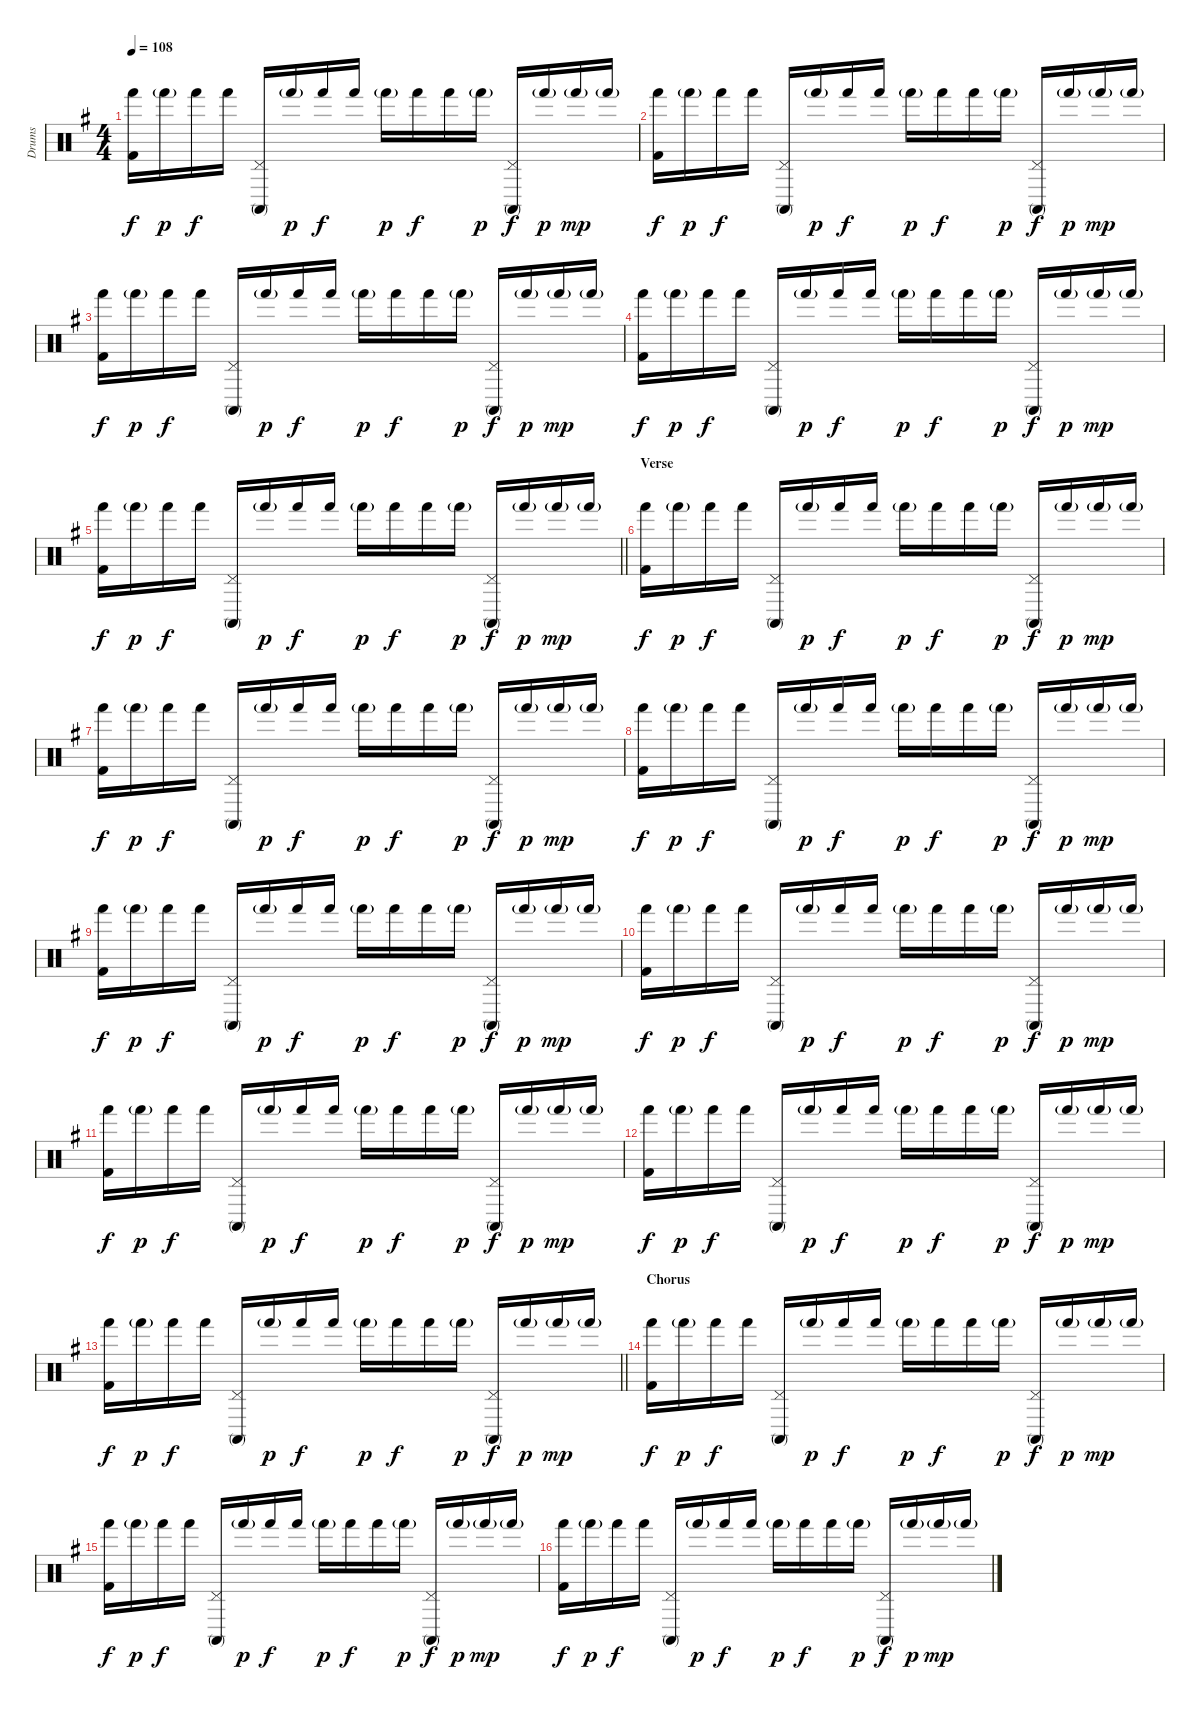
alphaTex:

\track ("Drums" "Drums") {instrument percussion}
\staff {score}
\articulation defaults
\ts (4 4)
\tempo 108
\clef neutral
\ks eminor
("Hand (hit)" "Kick (hit) 2").16{dy f} "Hand (hit)"{g}.16{dy p} "Hand (hit)".16{dy f} "Hand (hit)".16 ("Pedal Hi-Hat (hit)" "Conga high (mute)").16 "Hand (hit)"{g}.16{dy p} "Hand (hit)".16{dy f} "Hand (hit)".16 "Hand (hit)"{g}.16{dy p} "Hand (hit)".16{dy f} "Hand (hit)".16 "Hand (hit)"{g}.16{dy p} ("Pedal Hi-Hat (hit)" "Conga high (mute)").16{dy f} "Hand (hit)"{g}.16{dy p} "Hand (hit)"{g}.16{dy mp} "Hand (hit)"{g}.16 |
("Hand (hit)" "Kick (hit) 2").16{dy f} "Hand (hit)"{g}.16{dy p} "Hand (hit)".16{dy f} "Hand (hit)".16 ("Pedal Hi-Hat (hit)" "Conga high (mute)").16 "Hand (hit)"{g}.16{dy p} "Hand (hit)".16{dy f} "Hand (hit)".16 "Hand (hit)"{g}.16{dy p} "Hand (hit)".16{dy f} "Hand (hit)".16 "Hand (hit)"{g}.16{dy p} ("Pedal Hi-Hat (hit)" "Conga high (mute)").16{dy f} "Hand (hit)"{g}.16{dy p} "Hand (hit)"{g}.16{dy mp} "Hand (hit)"{g}.16 |
("Hand (hit)" "Kick (hit) 2").16{dy f} "Hand (hit)"{g}.16{dy p} "Hand (hit)".16{dy f} "Hand (hit)".16 ("Pedal Hi-Hat (hit)" "Conga high (mute)").16 "Hand (hit)"{g}.16{dy p} "Hand (hit)".16{dy f} "Hand (hit)".16 "Hand (hit)"{g}.16{dy p} "Hand (hit)".16{dy f} "Hand (hit)".16 "Hand (hit)"{g}.16{dy p} ("Pedal Hi-Hat (hit)" "Conga high (mute)").16{dy f} "Hand (hit)"{g}.16{dy p} "Hand (hit)"{g}.16{dy mp} "Hand (hit)"{g}.16 |
("Hand (hit)" "Kick (hit) 2").16{dy f} "Hand (hit)"{g}.16{dy p} "Hand (hit)".16{dy f} "Hand (hit)".16 ("Pedal Hi-Hat (hit)" "Conga high (mute)").16 "Hand (hit)"{g}.16{dy p} "Hand (hit)".16{dy f} "Hand (hit)".16 "Hand (hit)"{g}.16{dy p} "Hand (hit)".16{dy f} "Hand (hit)".16 "Hand (hit)"{g}.16{dy p} ("Pedal Hi-Hat (hit)" "Conga high (mute)").16{dy f} "Hand (hit)"{g}.16{dy p} "Hand (hit)"{g}.16{dy mp} "Hand (hit)"{g}.16 |
\barLineRight lightlight
("Hand (hit)" "Kick (hit) 2").16{dy f} "Hand (hit)"{g}.16{dy p} "Hand (hit)".16{dy f} "Hand (hit)".16 ("Pedal Hi-Hat (hit)" "Conga high (mute)").16 "Hand (hit)"{g}.16{dy p} "Hand (hit)".16{dy f} "Hand (hit)".16 "Hand (hit)"{g}.16{dy p} "Hand (hit)".16{dy f} "Hand (hit)".16 "Hand (hit)"{g}.16{dy p} ("Pedal Hi-Hat (hit)" "Conga high (mute)").16{dy f} "Hand (hit)"{g}.16{dy p} "Hand (hit)"{g}.16{dy mp} "Hand (hit)"{g}.16 |
\section ("" "Verse")
("Hand (hit)" "Kick (hit) 2").16{dy f} "Hand (hit)"{g}.16{dy p} "Hand (hit)".16{dy f} "Hand (hit)".16 ("Pedal Hi-Hat (hit)" "Conga high (mute)").16 "Hand (hit)"{g}.16{dy p} "Hand (hit)".16{dy f} "Hand (hit)".16 "Hand (hit)"{g}.16{dy p} "Hand (hit)".16{dy f} "Hand (hit)".16 "Hand (hit)"{g}.16{dy p} ("Pedal Hi-Hat (hit)" "Conga high (mute)").16{dy f} "Hand (hit)"{g}.16{dy p} "Hand (hit)"{g}.16{dy mp} "Hand (hit)"{g}.16 |
("Hand (hit)" "Kick (hit) 2").16{dy f} "Hand (hit)"{g}.16{dy p} "Hand (hit)".16{dy f} "Hand (hit)".16 ("Pedal Hi-Hat (hit)" "Conga high (mute)").16 "Hand (hit)"{g}.16{dy p} "Hand (hit)".16{dy f} "Hand (hit)".16 "Hand (hit)"{g}.16{dy p} "Hand (hit)".16{dy f} "Hand (hit)".16 "Hand (hit)"{g}.16{dy p} ("Pedal Hi-Hat (hit)" "Conga high (mute)").16{dy f} "Hand (hit)"{g}.16{dy p} "Hand (hit)"{g}.16{dy mp} "Hand (hit)"{g}.16 |
("Hand (hit)" "Kick (hit) 2").16{dy f} "Hand (hit)"{g}.16{dy p} "Hand (hit)".16{dy f} "Hand (hit)".16 ("Pedal Hi-Hat (hit)" "Conga high (mute)").16 "Hand (hit)"{g}.16{dy p} "Hand (hit)".16{dy f} "Hand (hit)".16 "Hand (hit)"{g}.16{dy p} "Hand (hit)".16{dy f} "Hand (hit)".16 "Hand (hit)"{g}.16{dy p} ("Pedal Hi-Hat (hit)" "Conga high (mute)").16{dy f} "Hand (hit)"{g}.16{dy p} "Hand (hit)"{g}.16{dy mp} "Hand (hit)"{g}.16 |
("Hand (hit)" "Kick (hit) 2").16{dy f} "Hand (hit)"{g}.16{dy p} "Hand (hit)".16{dy f} "Hand (hit)".16 ("Pedal Hi-Hat (hit)" "Conga high (mute)").16 "Hand (hit)"{g}.16{dy p} "Hand (hit)".16{dy f} "Hand (hit)".16 "Hand (hit)"{g}.16{dy p} "Hand (hit)".16{dy f} "Hand (hit)".16 "Hand (hit)"{g}.16{dy p} ("Pedal Hi-Hat (hit)" "Conga high (mute)").16{dy f} "Hand (hit)"{g}.16{dy p} "Hand (hit)"{g}.16{dy mp} "Hand (hit)"{g}.16 |
("Hand (hit)" "Kick (hit) 2").16{dy f} "Hand (hit)"{g}.16{dy p} "Hand (hit)".16{dy f} "Hand (hit)".16 ("Pedal Hi-Hat (hit)" "Conga high (mute)").16 "Hand (hit)"{g}.16{dy p} "Hand (hit)".16{dy f} "Hand (hit)".16 "Hand (hit)"{g}.16{dy p} "Hand (hit)".16{dy f} "Hand (hit)".16 "Hand (hit)"{g}.16{dy p} ("Pedal Hi-Hat (hit)" "Conga high (mute)").16{dy f} "Hand (hit)"{g}.16{dy p} "Hand (hit)"{g}.16{dy mp} "Hand (hit)"{g}.16 |
("Hand (hit)" "Kick (hit) 2").16{dy f} "Hand (hit)"{g}.16{dy p} "Hand (hit)".16{dy f} "Hand (hit)".16 ("Pedal Hi-Hat (hit)" "Conga high (mute)").16 "Hand (hit)"{g}.16{dy p} "Hand (hit)".16{dy f} "Hand (hit)".16 "Hand (hit)"{g}.16{dy p} "Hand (hit)".16{dy f} "Hand (hit)".16 "Hand (hit)"{g}.16{dy p} ("Pedal Hi-Hat (hit)" "Conga high (mute)").16{dy f} "Hand (hit)"{g}.16{dy p} "Hand (hit)"{g}.16{dy mp} "Hand (hit)"{g}.16 |
("Hand (hit)" "Kick (hit) 2").16{dy f} "Hand (hit)"{g}.16{dy p} "Hand (hit)".16{dy f} "Hand (hit)".16 ("Pedal Hi-Hat (hit)" "Conga high (mute)").16 "Hand (hit)"{g}.16{dy p} "Hand (hit)".16{dy f} "Hand (hit)".16 "Hand (hit)"{g}.16{dy p} "Hand (hit)".16{dy f} "Hand (hit)".16 "Hand (hit)"{g}.16{dy p} ("Pedal Hi-Hat (hit)" "Conga high (mute)").16{dy f} "Hand (hit)"{g}.16{dy p} "Hand (hit)"{g}.16{dy mp} "Hand (hit)"{g}.16 |
\barLineRight lightlight
("Hand (hit)" "Kick (hit) 2").16{dy f} "Hand (hit)"{g}.16{dy p} "Hand (hit)".16{dy f} "Hand (hit)".16 ("Pedal Hi-Hat (hit)" "Conga high (mute)").16 "Hand (hit)"{g}.16{dy p} "Hand (hit)".16{dy f} "Hand (hit)".16 "Hand (hit)"{g}.16{dy p} "Hand (hit)".16{dy f} "Hand (hit)".16 "Hand (hit)"{g}.16{dy p} ("Pedal Hi-Hat (hit)" "Conga high (mute)").16{dy f} "Hand (hit)"{g}.16{dy p} "Hand (hit)"{g}.16{dy mp} "Hand (hit)"{g}.16 |
\section ("" "Chorus")
("Hand (hit)" "Kick (hit) 2").16{dy f} "Hand (hit)"{g}.16{dy p} "Hand (hit)".16{dy f} "Hand (hit)".16 ("Pedal Hi-Hat (hit)" "Conga high (mute)").16 "Hand (hit)"{g}.16{dy p} "Hand (hit)".16{dy f} "Hand (hit)".16 "Hand (hit)"{g}.16{dy p} "Hand (hit)".16{dy f} "Hand (hit)".16 "Hand (hit)"{g}.16{dy p} ("Pedal Hi-Hat (hit)" "Conga high (mute)").16{dy f} "Hand (hit)"{g}.16{dy p} "Hand (hit)"{g}.16{dy mp} "Hand (hit)"{g}.16 |
("Hand (hit)" "Kick (hit) 2").16{dy f} "Hand (hit)"{g}.16{dy p} "Hand (hit)".16{dy f} "Hand (hit)".16 ("Pedal Hi-Hat (hit)" "Conga high (mute)").16 "Hand (hit)"{g}.16{dy p} "Hand (hit)".16{dy f} "Hand (hit)".16 "Hand (hit)"{g}.16{dy p} "Hand (hit)".16{dy f} "Hand (hit)".16 "Hand (hit)"{g}.16{dy p} ("Pedal Hi-Hat (hit)" "Conga high (mute)").16{dy f} "Hand (hit)"{g}.16{dy p} "Hand (hit)"{g}.16{dy mp} "Hand (hit)"{g}.16 |
("Hand (hit)" "Kick (hit) 2").16{dy f} "Hand (hit)"{g}.16{dy p} "Hand (hit)".16{dy f} "Hand (hit)".16 ("Pedal Hi-Hat (hit)" "Conga high (mute)").16 "Hand (hit)"{g}.16{dy p} "Hand (hit)".16{dy f} "Hand (hit)".16 "Hand (hit)"{g}.16{dy p} "Hand (hit)".16{dy f} "Hand (hit)".16 "Hand (hit)"{g}.16{dy p} ("Pedal Hi-Hat (hit)" "Conga high (mute)").16{dy f} "Hand (hit)"{g}.16{dy p} "Hand (hit)"{g}.16{dy mp} "Hand (hit)"{g}.16
